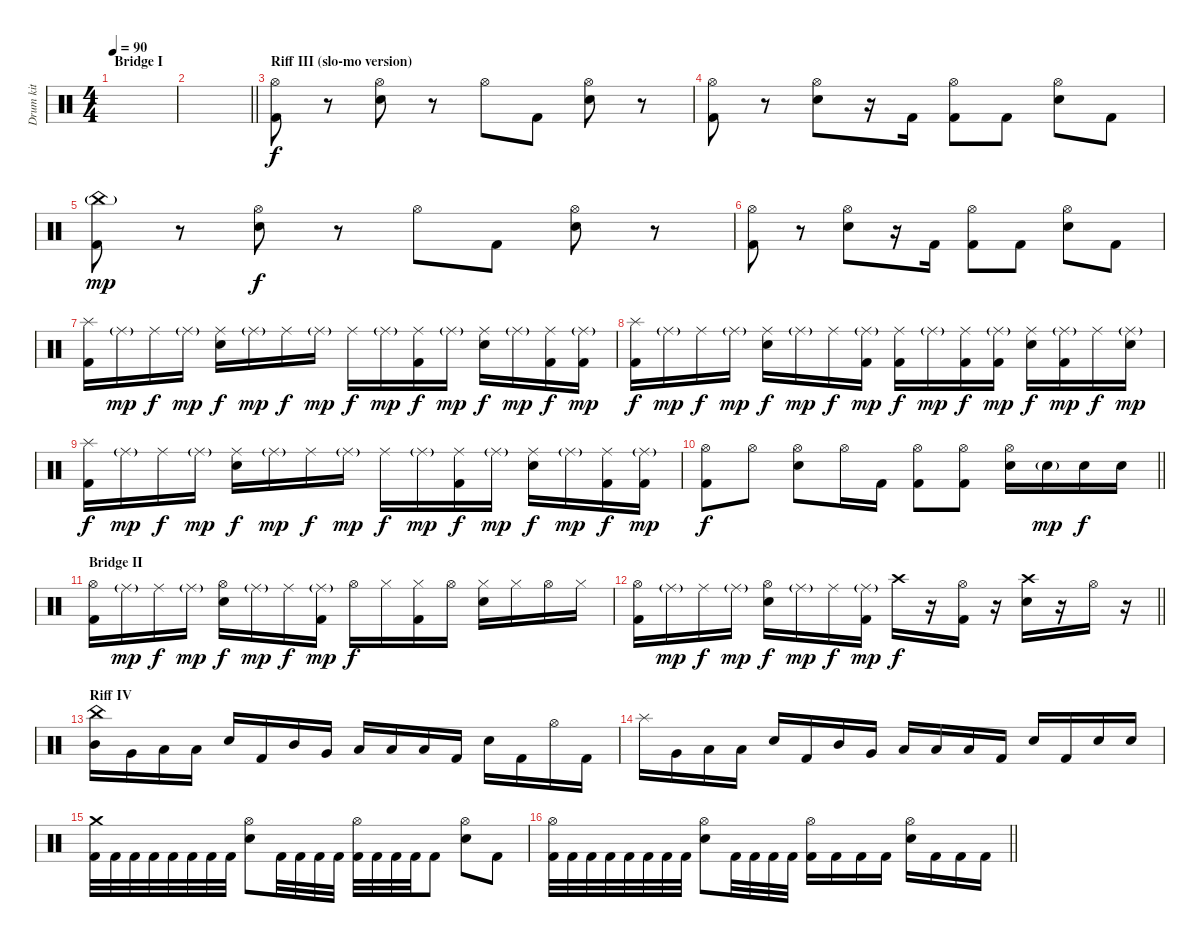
\track ("Drum kit" "Drum kit") {instrument percussion}
\staff {score}
\articulation defaults
\ts (4 4)
\section ("" "Bridge I")
\tempo 90
\clef neutral
\ks c
|
\barLineRight lightlight
|
\section ("" "Riff III (slo-mo version)")
("Hi-Hat (open)" "Kick (hit) 2").8 r.8 ("Hi-Hat (open)" "Electric Snare (hit)").8 r.8 "Hi-Hat (open)".8 "Kick (hit) 2".8 ("Hi-Hat (open)" "Electric Snare (hit)").8 r.8 |
("Hi-Hat (open)" "Kick (hit) 2").8 r.8 ("Hi-Hat (open)" "Electric Snare (hit)").8 r.16 "Kick (hit) 2".16 ("Hi-Hat (open)" "Kick (hit) 2").8 "Kick (hit) 2".8 ("Hi-Hat (open)" "Electric Snare (hit)").8 "Kick (hit) 2".8 |
("China (hit)"{g} "Kick (hit) 2").8{dy mp} r.8 ("Hi-Hat (open)" "Electric Snare (hit)").8{dy f} r.8 "Hi-Hat (open)".8 "Kick (hit) 2".8 ("Hi-Hat (open)" "Electric Snare (hit)").8 r.8 |
("Hi-Hat (open)" "Kick (hit) 2").8 r.8 ("Hi-Hat (open)" "Electric Snare (hit)").8 r.16 "Kick (hit) 2".16 ("Hi-Hat (open)" "Kick (hit) 2").8 "Kick (hit) 2".8 ("Hi-Hat (open)" "Electric Snare (hit)").8 "Kick (hit) 2".8 |
("Splash (hit)" "Kick (hit) 2").16 "Ride (middle)"{g}.16{dy mp} "Ride (middle)".16{dy f} "Ride (middle)"{g}.16{dy mp} ("Ride (middle)" "Electric Snare (hit)").16{dy f} "Ride (middle)"{g}.16{dy mp} "Ride (middle)".16{dy f} "Ride (middle)"{g}.16{dy mp} "Ride (middle)".16{dy f} "Ride (middle)"{g}.16{dy mp} ("Ride (middle)" "Kick (hit) 2").16{dy f} "Ride (middle)"{g}.16{dy mp} ("Ride (middle)" "Electric Snare (hit)").16{dy f} "Ride (middle)"{g}.16{dy mp} ("Ride (middle)" "Kick (hit) 2").16{dy f} ("Ride (middle)"{g} "Kick (hit) 2").16{dy mp} |
("Splash (hit)" "Kick (hit) 2").16{dy f} "Ride (middle)"{g}.16{dy mp} "Ride (middle)".16{dy f} "Ride (middle)"{g}.16{dy mp} ("Ride (middle)" "Electric Snare (hit)").16{dy f} "Ride (middle)"{g}.16{dy mp} "Ride (middle)".16{dy f} ("Ride (middle)"{g} "Kick (hit) 2").16{dy mp} ("Ride (middle)" "Kick (hit) 2").16{dy f} "Ride (middle)"{g}.16{dy mp} ("Ride (middle)" "Kick (hit) 2").16{dy f} ("Ride (middle)"{g} "Kick (hit) 2").16{dy mp} ("Ride (middle)" "Electric Snare (hit)").16{dy f} ("Ride (middle)"{g} "Kick (hit) 2").16{dy mp} "Ride (middle)".16{dy f} ("Ride (middle)"{g} "Electric Snare (hit)").16{dy mp} |
("Splash (hit)" "Kick (hit) 2").16{dy f} "Ride (middle)"{g}.16{dy mp} "Ride (middle)".16{dy f} "Ride (middle)"{g}.16{dy mp} ("Ride (middle)" "Electric Snare (hit)").16{dy f} "Ride (middle)"{g}.16{dy mp} "Ride (middle)".16{dy f} "Ride (middle)"{g}.16{dy mp} "Ride (middle)".16{dy f} "Ride (middle)"{g}.16{dy mp} ("Ride (middle)" "Kick (hit) 2").16{dy f} "Ride (middle)"{g}.16{dy mp} ("Ride (middle)" "Electric Snare (hit)").16{dy f} "Ride (middle)"{g}.16{dy mp} ("Ride (middle)" "Kick (hit) 2").16{dy f} ("Ride (middle)"{g} "Kick (hit) 2").16{dy mp} |
\barLineRight lightlight
("Hi-Hat (open)" "Kick (hit) 2").8{dy f} "Hi-Hat (open)".8 ("Hi-Hat (open)" "Electric Snare (hit)").8 "Hi-Hat (open)".16 "Kick (hit) 2".16 ("Hi-Hat (open)" "Kick (hit) 2").8 ("Hi-Hat (open)" "Kick (hit) 2").8 ("Hi-Hat (open)" "Electric Snare (hit)").16 "Electric Snare (hit)"{g}.16{dy mp} "Electric Snare (hit)".16{dy f} "Electric Snare (hit)".16 |
\section ("" "Bridge II")
("Hi-Hat (open)" "Kick (hit) 2").16 "Ride (middle)"{g}.16{dy mp} "Ride (middle)".16{dy f} "Ride (middle)"{g}.16{dy mp} ("Hi-Hat (open)" "Electric Snare (hit)").16{dy f} "Ride (middle)"{g}.16{dy mp} "Ride (middle)".16{dy f} ("Ride (middle)"{g} "Kick (hit) 2").16{dy mp} "Hi-Hat (open)".16{dy f} "Hi-Hat (closed)".16 ("Hi-Hat (closed)" "Kick (hit) 2").16 "Hi-Hat (open)".16 ("Hi-Hat (closed)" "Electric Snare (hit)").16 "Hi-Hat (closed)".16 "Hi-Hat (open)".16 "Hi-Hat (closed)".16 |
\barLineRight lightlight
("Hi-Hat (open)" "Kick (hit) 2").16 "Ride (middle)"{g}.16{dy mp} "Ride (middle)".16{dy f} "Ride (middle)"{g}.16{dy mp} ("Hi-Hat (open)" "Electric Snare (hit)").16{dy f} "Ride (middle)"{g}.16{dy mp} "Ride (middle)".16{dy f} ("Ride (middle)"{g} "Kick (hit) 2").16{dy mp} "Crash high (hit)".16{dy f} r.16 ("Hi-Hat (open)" "Kick (hit) 2").16 r.16 ("Crash high (hit)" "Electric Snare (hit)").16 r.16 "Hi-Hat (open)".16 r.16 |
\section ("" "Riff IV")
("China (hit)" "Mid Tom (hit)").16 "Very Low Tom (hit)".16 "Low Tom (hit)".16 "Low Floor Tom (hit)".16 "Electric Snare (hit)".16 "Kick (hit) 2".16 "Mid Tom (hit)".16 "Very Low Tom (hit)".16 "Low Tom (hit)".16 "Low Floor Tom (hit)".16 "Low Tom (hit)".16 "Kick (hit) 2".16 "Electric Snare (hit)".16 "Kick (hit) 2".16 "Hi-Hat (open)".16 "Kick (hit) 2".16 |
"Splash (hit)".16 "Very Low Tom (hit)".16 "Low Tom (hit)".16 "Low Floor Tom (hit)".16 "Electric Snare (hit)".16 "Kick (hit) 2".16 "Mid Tom (hit)".16 "Very Low Tom (hit)".16 "Low Tom (hit)".16 "Low Floor Tom (hit)".16 "Low Tom (hit)".16 "Kick (hit) 2".16 "Electric Snare (hit)".16 "Kick (hit) 2".16 "Electric Snare (hit)".16 "Electric Snare (hit)".16 |
("Crash medium (hit)" "Kick (hit) 2").32 "Kick (hit) 2".32 "Kick (hit) 2".32 "Kick (hit) 2".32 "Kick (hit) 2".32 "Kick (hit) 2".32 "Kick (hit) 2".32 "Kick (hit) 2".32 ("Hi-Hat (open)" "Electric Snare (hit)").8 "Kick (hit) 2".32 "Kick (hit) 2".32 "Kick (hit) 2".32 "Kick (hit) 2".32 ("Hi-Hat (open)" "Kick (hit) 2").32 "Kick (hit) 2".32 "Kick (hit) 2".32 "Kick (hit) 2".32 "Kick (hit) 2".8 ("Hi-Hat (open)" "Electric Snare (hit)").8 "Kick (hit) 2".8 |
\barLineRight lightlight
("Hi-Hat (open)" "Kick (hit) 2").32 "Kick (hit) 2".32 "Kick (hit) 2".32 "Kick (hit) 2".32 "Kick (hit) 2".32 "Kick (hit) 2".32 "Kick (hit) 2".32 "Kick (hit) 2".32 ("Hi-Hat (open)" "Electric Snare (hit)").8 "Kick (hit) 2".32 "Kick (hit) 2".32 "Kick (hit) 2".32 "Kick (hit) 2".32 ("Hi-Hat (open)" "Kick (hit) 2").16 "Kick (hit) 2".16 "Kick (hit) 2".16 "Kick (hit) 2".16 ("Hi-Hat (open)" "Electric Snare (hit)").16 "Kick (hit) 2".16 "Kick (hit) 2".16 "Kick (hit) 2".16
